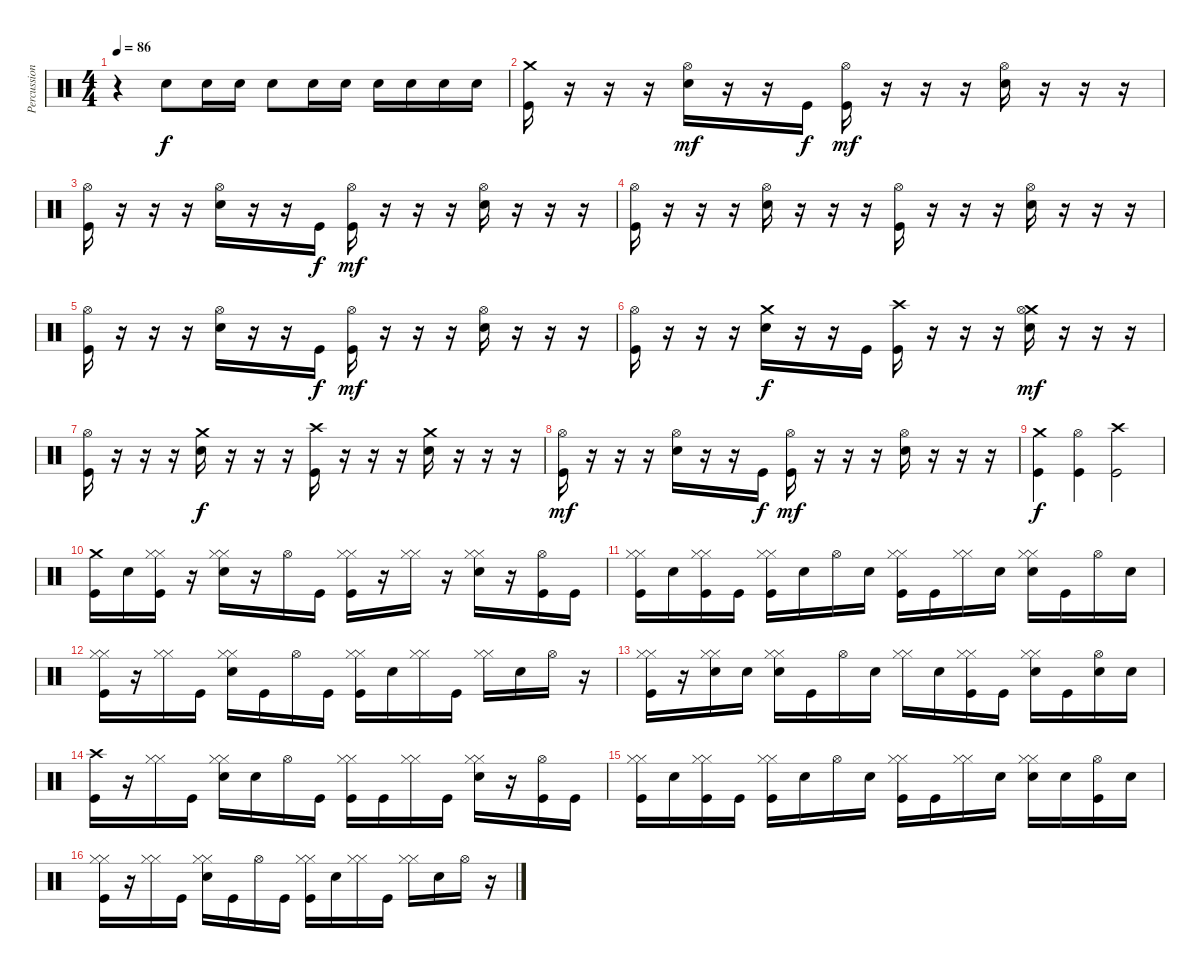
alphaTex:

\track ("Percussion" "Percussion") {instrument percussion}
\staff {score}
\articulation defaults
\ts (4 4)
\tempo 86
\clef neutral
\ks c
r.4{dy f} "Electric Snare (hit)".8 "Electric Snare (hit)".16 "Electric Snare (hit)".16 "Electric Snare (hit)".8 "Electric Snare (hit)".16 "Electric Snare (hit)".16 "Electric Snare (hit)".16 "Electric Snare (hit)".16 "Electric Snare (hit)".16 "Electric Snare (hit)".16 |
("Crash medium (hit)" "Kick (hit)").16 r.16 r.16 r.16 ("Hi-Hat (open)" "Electric Snare (hit)").16{dy mf} r.16 r.16 "Kick (hit)".16{dy f} ("Hi-Hat (open)" "Kick (hit)").16{dy mf} r.16 r.16 r.16 ("Hi-Hat (open)" "Electric Snare (hit)").16 r.16 r.16 r.16 |
("Hi-Hat (open)" "Kick (hit)").16 r.16 r.16 r.16 ("Hi-Hat (open)" "Electric Snare (hit)").16 r.16 r.16 "Kick (hit)".16{dy f} ("Hi-Hat (open)" "Kick (hit)").16{dy mf} r.16 r.16 r.16 ("Hi-Hat (open)" "Electric Snare (hit)").16 r.16 r.16 r.16 |
("Hi-Hat (open)" "Kick (hit)").16 r.16 r.16 r.16 ("Hi-Hat (open)" "Electric Snare (hit)").16 r.16 r.16 r.16 ("Hi-Hat (open)" "Kick (hit)").16 r.16 r.16 r.16 ("Hi-Hat (open)" "Electric Snare (hit)").16 r.16 r.16 r.16 |
("Hi-Hat (open)" "Kick (hit)").16 r.16 r.16 r.16 ("Hi-Hat (open)" "Electric Snare (hit)").16 r.16 r.16 "Kick (hit)".16{dy f} ("Hi-Hat (open)" "Kick (hit)").16{dy mf} r.16 r.16 r.16 ("Hi-Hat (open)" "Electric Snare (hit)").16 r.16 r.16 r.16 |
("Hi-Hat (open)" "Kick (hit)").16 r.16 r.16 r.16 ("Crash medium (hit)" "Electric Snare (hit)").16{dy f} r.16 r.16 "Kick (hit)".16 ("Crash high (hit)" "Kick (hit)").16 r.16 r.16 r.16 ("Crash medium (hit)" "Hi-Hat (open)" "Electric Snare (hit)").16{dy mf} r.16 r.16 r.16 |
("Hi-Hat (open)" "Kick (hit)").16 r.16 r.16 r.16 ("Crash medium (hit)" "Electric Snare (hit)").16{dy f} r.16 r.16 r.16 ("Crash high (hit)" "Kick (hit)").16 r.16 r.16 r.16 ("Crash medium (hit)" "Electric Snare (hit)").16 r.16 r.16 r.16 |
("Hi-Hat (open)" "Kick (hit)").16{dy mf} r.16 r.16 r.16 ("Hi-Hat (open)" "Electric Snare (hit)").16 r.16 r.16 "Kick (hit)".16{dy f} ("Hi-Hat (open)" "Kick (hit)").16{dy mf} r.16 r.16 r.16 ("Hi-Hat (open)" "Electric Snare (hit)").16 r.16 r.16 r.16 |
("Crash medium (hit)" "Kick (hit)").4{dy f} ("Hi-Hat (open)" "Kick (hit)").4 ("Crash high (hit)" "Kick (hit)").2 |
("Crash medium (hit)" "Kick (hit)").16 "Electric Snare (hit)".16 ("Hi-Hat (closed)" "Hi-Hat (closed)" "Kick (hit)").16 r.16 ("Hi-Hat (closed)" "Hi-Hat (closed)" "Electric Snare (hit)").16 r.16 "Hi-Hat (open)".16 "Kick (hit)".16 ("Hi-Hat (closed)" "Hi-Hat (closed)" "Kick (hit)").16 r.16 ("Hi-Hat (closed)" "Hi-Hat (closed)").16 r.16 ("Hi-Hat (closed)" "Hi-Hat (closed)" "Electric Snare (hit)").16 r.16 ("Hi-Hat (open)" "Kick (hit)").16 "Kick (hit)".16 |
("Hi-Hat (closed)" "Hi-Hat (closed)" "Kick (hit)").16 "Electric Snare (hit)".16 ("Hi-Hat (closed)" "Hi-Hat (closed)" "Kick (hit)").16 "Kick (hit)".16 ("Hi-Hat (closed)" "Hi-Hat (closed)" "Kick (hit)").16 "Electric Snare (hit)".16 "Hi-Hat (open)".16 "Electric Snare (hit)".16 ("Hi-Hat (closed)" "Hi-Hat (closed)" "Kick (hit)").16 "Kick (hit)".16 ("Hi-Hat (closed)" "Hi-Hat (closed)").16 "Electric Snare (hit)".16 ("Hi-Hat (closed)" "Hi-Hat (closed)" "Electric Snare (hit)").16 "Kick (hit)".16 "Hi-Hat (open)".16 "Electric Snare (hit)".16 |
("Hi-Hat (closed)" "Hi-Hat (closed)" "Kick (hit)").16 r.16 ("Hi-Hat (closed)" "Hi-Hat (closed)").16 "Kick (hit)".16 ("Hi-Hat (closed)" "Hi-Hat (closed)" "Electric Snare (hit)").16 "Kick (hit)".16 "Hi-Hat (open)".16 "Kick (hit)".16 ("Hi-Hat (closed)" "Hi-Hat (closed)" "Kick (hit)").16 "Electric Snare (hit)".16 ("Hi-Hat (closed)" "Hi-Hat (closed)").16 "Kick (hit)".16 ("Hi-Hat (closed)" "Hi-Hat (closed)").16 "Electric Snare (hit)".16 "Hi-Hat (open)".16 r.16 |
("Hi-Hat (closed)" "Hi-Hat (closed)" "Kick (hit)").16 r.16 ("Hi-Hat (closed)" "Hi-Hat (closed)" "Electric Snare (hit)").16 "Electric Snare (hit)".16 ("Hi-Hat (closed)" "Hi-Hat (closed)" "Electric Snare (hit)").16 "Kick (hit)".16 "Hi-Hat (open)".16 "Electric Snare (hit)".16 ("Hi-Hat (closed)" "Hi-Hat (closed)").16 "Electric Snare (hit)".16 ("Hi-Hat (closed)" "Hi-Hat (closed)" "Kick (hit)").16 "Kick (hit)".16 ("Hi-Hat (closed)" "Hi-Hat (closed)" "Electric Snare (hit)").16 "Kick (hit)".16 ("Hi-Hat (open)" "Electric Snare (hit)").16 "Electric Snare (hit)".16 |
("Crash high (hit)" "Kick (hit)").16 r.16 ("Hi-Hat (closed)" "Hi-Hat (closed)").16 "Kick (hit)".16 ("Hi-Hat (closed)" "Hi-Hat (closed)" "Electric Snare (hit)").16 "Electric Snare (hit)".16 "Hi-Hat (open)".16 "Kick (hit)".16 ("Hi-Hat (closed)" "Hi-Hat (closed)" "Kick (hit)").16 "Kick (hit)".16 ("Hi-Hat (closed)" "Hi-Hat (closed)").16 "Kick (hit)".16 ("Hi-Hat (closed)" "Hi-Hat (closed)" "Electric Snare (hit)").16 r.16 ("Hi-Hat (open)" "Kick (hit)").16 "Kick (hit)".16 |
("Hi-Hat (closed)" "Hi-Hat (closed)" "Kick (hit)").16 "Electric Snare (hit)".16 ("Hi-Hat (closed)" "Hi-Hat (closed)" "Kick (hit)").16 "Kick (hit)".16 ("Hi-Hat (closed)" "Hi-Hat (closed)" "Kick (hit)").16 "Electric Snare (hit)".16 "Hi-Hat (open)".16 "Electric Snare (hit)".16 ("Hi-Hat (closed)" "Hi-Hat (closed)" "Kick (hit)").16 "Kick (hit)".16 ("Hi-Hat (closed)" "Hi-Hat (closed)").16 "Electric Snare (hit)".16 ("Hi-Hat (closed)" "Hi-Hat (closed)" "Electric Snare (hit)").16 "Electric Snare (hit)".16 ("Hi-Hat (open)" "Kick (hit)").16 "Electric Snare (hit)".16 |
("Hi-Hat (closed)" "Hi-Hat (closed)" "Kick (hit)").16 r.16 ("Hi-Hat (closed)" "Hi-Hat (closed)").16 "Kick (hit)".16 ("Hi-Hat (closed)" "Hi-Hat (closed)" "Electric Snare (hit)").16 "Kick (hit)".16 "Hi-Hat (open)".16 "Kick (hit)".16 ("Hi-Hat (closed)" "Hi-Hat (closed)" "Kick (hit)").16 "Electric Snare (hit)".16 ("Hi-Hat (closed)" "Hi-Hat (closed)").16 "Kick (hit)".16 ("Hi-Hat (closed)" "Hi-Hat (closed)").16 "Electric Snare (hit)".16 "Hi-Hat (open)".16 r.16
